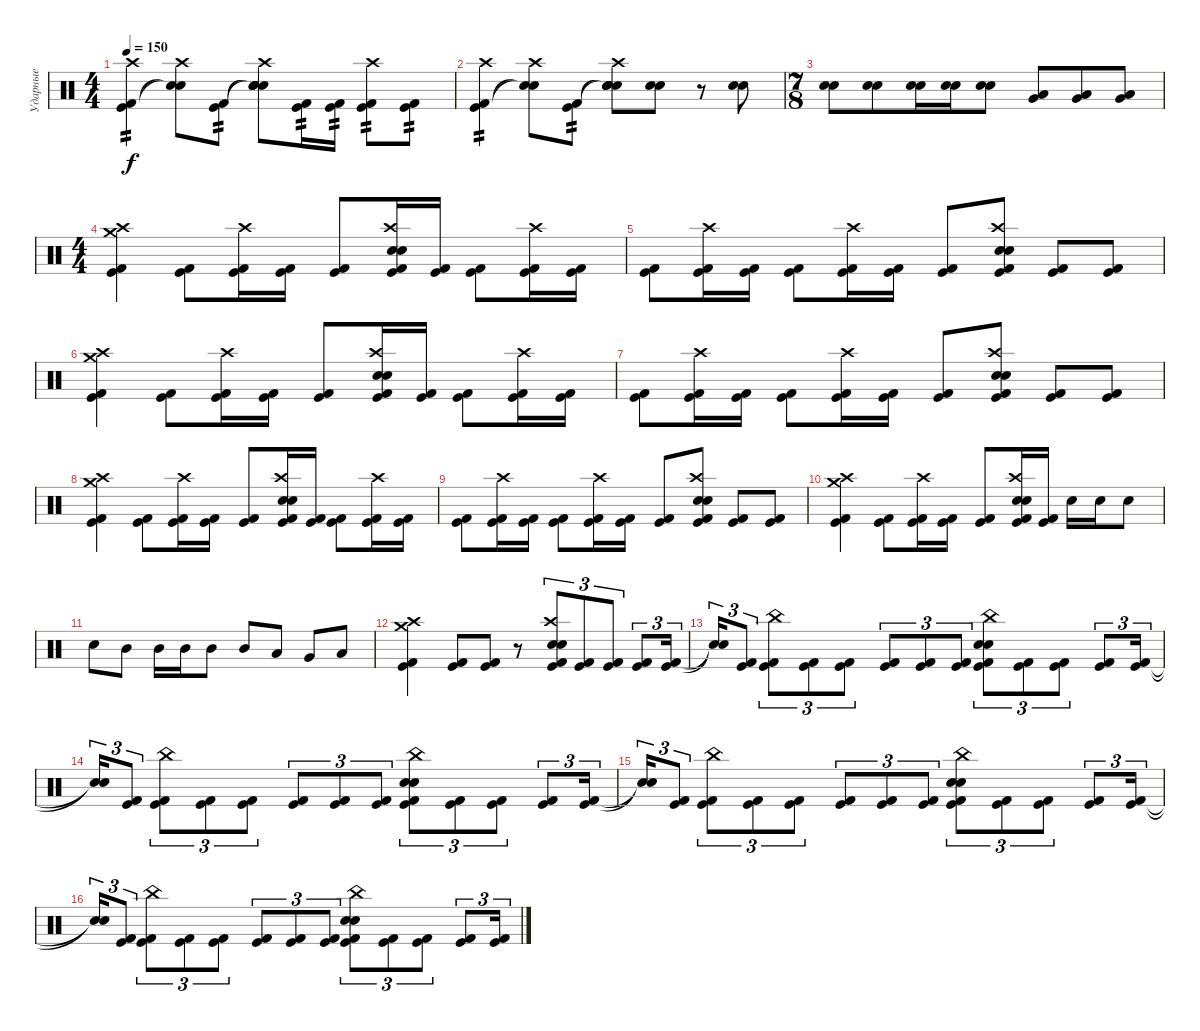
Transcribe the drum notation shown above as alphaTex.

\track ("Ударные" "Ударные") {instrument percussion}
\staff {score}
\articulation defaults
\ts (4 4)
\tempo 150
\clef neutral
\ks c
("Kick (hit) 2" "Kick (hit)" "Crash high (hit)").4{tp 2 dy f} ("Snare (hit)"{t} "Snare (hit)"{t} "Crash high (hit)").8 ("Kick (hit) 2" "Kick (hit)").8{tp 2} ("Snare (hit)"{t} "Snare (hit)"{t} "Electric Snare (hit)" "Snare (hit) 2" "Crash high (hit)").8 ("Kick (hit) 2" "Kick (hit)").16{tp 2} ("Kick (hit) 2" "Kick (hit)").16{tp 2} ("Kick (hit) 2" "Kick (hit)" "Crash high (hit)").8{tp 2} ("Kick (hit) 2" "Kick (hit)").8{tp 2} |
("Kick (hit) 2" "Kick (hit)" "Crash high (hit)").4{tp 2} ("Snare (hit)"{t} "Snare (hit)"{t} "Crash high (hit)").8 ("Kick (hit) 2" "Kick (hit)").8{tp 2} ("Snare (hit)"{t} "Snare (hit)"{t} "Electric Snare (hit)" "Snare (hit) 2" "Crash high (hit)").8 ("Snare (hit) 2" "Electric Snare (hit)").8 r.8 ("Snare (hit) 2" "Electric Snare (hit)").8 |
\ts (7 8)
("Snare (hit) 2" "Electric Snare (hit)").8 ("Snare (hit) 2" "Electric Snare (hit)").8 ("Snare (hit) 2" "Electric Snare (hit)").16 ("Snare (hit) 2" "Electric Snare (hit)").16 ("Snare (hit) 2" "Electric Snare (hit)").8 ("Very Low Tom (hit)" "Low Tom (hit)").8 ("Very Low Tom (hit)" "Low Tom (hit)").8 ("Very Low Tom (hit)" "Low Tom (hit)").8 |
\ts (4 4)
("Kick (hit) 2" "Kick (hit)" "Crash medium (hit)" "Crash high (hit)").4 ("Kick (hit) 2" "Kick (hit)").8 ("Kick (hit) 2" "Kick (hit)" "Crash high (hit)").16 ("Kick (hit) 2" "Kick (hit)").16 ("Kick (hit) 2" "Kick (hit)").8 ("Kick (hit) 2" "Kick (hit)" "Electric Snare (hit)" "Snare (hit) 2" "Crash high (hit)").16 ("Kick (hit) 2" "Kick (hit)").16 ("Kick (hit) 2" "Kick (hit)").8 ("Kick (hit) 2" "Kick (hit)" "Crash high (hit)").16 ("Kick (hit) 2" "Kick (hit)").16 |
("Kick (hit) 2" "Kick (hit)").8 ("Kick (hit) 2" "Kick (hit)" "Crash high (hit)").16 ("Kick (hit) 2" "Kick (hit)").16 ("Kick (hit) 2" "Kick (hit)").8 ("Kick (hit) 2" "Kick (hit)" "Crash high (hit)").16 ("Kick (hit) 2" "Kick (hit)").16 ("Kick (hit) 2" "Kick (hit)").8 ("Kick (hit) 2" "Kick (hit)" "Electric Snare (hit)" "Snare (hit) 2" "Crash high (hit)").8 ("Kick (hit) 2" "Kick (hit)").8 ("Kick (hit) 2" "Kick (hit)").8 |
("Kick (hit) 2" "Kick (hit)" "Crash medium (hit)" "Crash high (hit)").4 ("Kick (hit) 2" "Kick (hit)").8 ("Kick (hit) 2" "Kick (hit)" "Crash high (hit)").16 ("Kick (hit) 2" "Kick (hit)").16 ("Kick (hit) 2" "Kick (hit)").8 ("Kick (hit) 2" "Kick (hit)" "Electric Snare (hit)" "Snare (hit) 2" "Crash high (hit)").16 ("Kick (hit) 2" "Kick (hit)").16 ("Kick (hit) 2" "Kick (hit)").8 ("Kick (hit) 2" "Kick (hit)" "Crash high (hit)").16 ("Kick (hit) 2" "Kick (hit)").16 |
("Kick (hit) 2" "Kick (hit)").8 ("Kick (hit) 2" "Kick (hit)" "Crash high (hit)").16 ("Kick (hit) 2" "Kick (hit)").16 ("Kick (hit) 2" "Kick (hit)").8 ("Kick (hit) 2" "Kick (hit)" "Crash high (hit)").16 ("Kick (hit) 2" "Kick (hit)").16 ("Kick (hit) 2" "Kick (hit)").8 ("Kick (hit) 2" "Kick (hit)" "Electric Snare (hit)" "Snare (hit) 2" "Crash high (hit)").8 ("Kick (hit) 2" "Kick (hit)").8 ("Kick (hit) 2" "Kick (hit)").8 |
("Kick (hit) 2" "Kick (hit)" "Crash medium (hit)" "Crash high (hit)").4 ("Kick (hit) 2" "Kick (hit)").8 ("Kick (hit) 2" "Kick (hit)" "Crash high (hit)").16 ("Kick (hit) 2" "Kick (hit)").16 ("Kick (hit) 2" "Kick (hit)").8 ("Kick (hit) 2" "Kick (hit)" "Electric Snare (hit)" "Snare (hit) 2" "Crash high (hit)").16 ("Kick (hit) 2" "Kick (hit)").16 ("Kick (hit) 2" "Kick (hit)").8 ("Kick (hit) 2" "Kick (hit)" "Crash high (hit)").16 ("Kick (hit) 2" "Kick (hit)").16 |
("Kick (hit) 2" "Kick (hit)").8 ("Kick (hit) 2" "Kick (hit)" "Crash high (hit)").16 ("Kick (hit) 2" "Kick (hit)").16 ("Kick (hit) 2" "Kick (hit)").8 ("Kick (hit) 2" "Kick (hit)" "Crash high (hit)").16 ("Kick (hit) 2" "Kick (hit)").16 ("Kick (hit) 2" "Kick (hit)").8 ("Kick (hit) 2" "Kick (hit)" "Electric Snare (hit)" "Snare (hit) 2" "Crash high (hit)").8 ("Kick (hit) 2" "Kick (hit)").8 ("Kick (hit) 2" "Kick (hit)").8 |
("Kick (hit) 2" "Kick (hit)" "Crash medium (hit)" "Crash high (hit)").4 ("Kick (hit) 2" "Kick (hit)").8 ("Kick (hit) 2" "Kick (hit)" "Crash high (hit)").16 ("Kick (hit) 2" "Kick (hit)").16 ("Kick (hit) 2" "Kick (hit)").8 ("Kick (hit) 2" "Kick (hit)" "Electric Snare (hit)" "Snare (hit) 2" "Crash high (hit)").16 ("Kick (hit) 2" "Kick (hit)").16 "Snare (hit) 2".16 "Snare (hit) 2".16 "Snare (hit) 2".8 |
"Snare (hit) 2".8 "Mid Tom (hit)".8 "Mid Tom (hit)".16 "Mid Tom (hit)".16 "Mid Tom (hit)".8 "Mid Tom (hit)".8 "Low Tom (hit)".8 "Very Low Tom (hit)".8 "Low Floor Tom (hit)".8 |
("Kick (hit) 2" "Kick (hit)" "Crash medium (hit)" "Crash high (hit)").4 ("Kick (hit) 2" "Kick (hit)").8 ("Kick (hit) 2" "Kick (hit)").8 r.8 ("Kick (hit) 2" "Kick (hit)" "Electric Snare (hit)" "Snare (hit) 2" "Crash high (hit)").8{tu (3 2)} ("Kick (hit) 2" "Kick (hit)").8{tu (3 2)} ("Kick (hit) 2" "Kick (hit)").8{tu (3 2)} ("Kick (hit) 2" "Kick (hit)").8{tu (3 2)} ("Kick (hit) 2" "Kick (hit)").16{tu (3 2)} |
("Snare (hit)"{t} "Snare (hit)"{t}).16{tu (3 2)} ("Kick (hit) 2" "Kick (hit)").8{tu (3 2)} ("Kick (hit) 2" "Kick (hit)" "China (hit)").8{tu (3 2)} ("Kick (hit) 2" "Kick (hit)").8{tu (3 2)} ("Kick (hit) 2" "Kick (hit)").8{tu (3 2)} ("Kick (hit) 2" "Kick (hit)").8{tu (3 2)} ("Kick (hit) 2" "Kick (hit)").8{tu (3 2)} ("Kick (hit) 2" "Kick (hit)").8{tu (3 2)} ("Kick (hit) 2" "Kick (hit)" "Electric Snare (hit)" "Snare (hit) 2" "China (hit)").8{tu (3 2)} ("Kick (hit) 2" "Kick (hit)").8{tu (3 2)} ("Kick (hit) 2" "Kick (hit)").8{tu (3 2)} ("Kick (hit) 2" "Kick (hit)").8{tu (3 2)} ("Kick (hit) 2" "Kick (hit)").16{tu (3 2)} |
("Snare (hit)"{t} "Snare (hit)"{t}).16{tu (3 2)} ("Kick (hit) 2" "Kick (hit)").8{tu (3 2)} ("Kick (hit) 2" "Kick (hit)" "China (hit)").8{tu (3 2)} ("Kick (hit) 2" "Kick (hit)").8{tu (3 2)} ("Kick (hit) 2" "Kick (hit)").8{tu (3 2)} ("Kick (hit) 2" "Kick (hit)").8{tu (3 2)} ("Kick (hit) 2" "Kick (hit)").8{tu (3 2)} ("Kick (hit) 2" "Kick (hit)").8{tu (3 2)} ("Kick (hit) 2" "Kick (hit)" "Electric Snare (hit)" "Snare (hit) 2" "China (hit)").8{tu (3 2)} ("Kick (hit) 2" "Kick (hit)").8{tu (3 2)} ("Kick (hit) 2" "Kick (hit)").8{tu (3 2)} ("Kick (hit) 2" "Kick (hit)").8{tu (3 2)} ("Kick (hit) 2" "Kick (hit)").16{tu (3 2)} |
("Snare (hit)"{t} "Snare (hit)"{t}).16{tu (3 2)} ("Kick (hit) 2" "Kick (hit)").8{tu (3 2)} ("Kick (hit) 2" "Kick (hit)" "China (hit)").8{tu (3 2)} ("Kick (hit) 2" "Kick (hit)").8{tu (3 2)} ("Kick (hit) 2" "Kick (hit)").8{tu (3 2)} ("Kick (hit) 2" "Kick (hit)").8{tu (3 2)} ("Kick (hit) 2" "Kick (hit)").8{tu (3 2)} ("Kick (hit) 2" "Kick (hit)").8{tu (3 2)} ("Kick (hit) 2" "Kick (hit)" "Electric Snare (hit)" "Snare (hit) 2" "China (hit)").8{tu (3 2)} ("Kick (hit) 2" "Kick (hit)").8{tu (3 2)} ("Kick (hit) 2" "Kick (hit)").8{tu (3 2)} ("Kick (hit) 2" "Kick (hit)").8{tu (3 2)} ("Kick (hit) 2" "Kick (hit)").16{tu (3 2)} |
("Snare (hit)"{t} "Snare (hit)"{t}).16{tu (3 2)} ("Kick (hit) 2" "Kick (hit)").8{tu (3 2)} ("Kick (hit) 2" "Kick (hit)" "China (hit)").8{tu (3 2)} ("Kick (hit) 2" "Kick (hit)").8{tu (3 2)} ("Kick (hit) 2" "Kick (hit)").8{tu (3 2)} ("Kick (hit) 2" "Kick (hit)").8{tu (3 2)} ("Kick (hit) 2" "Kick (hit)").8{tu (3 2)} ("Kick (hit) 2" "Kick (hit)").8{tu (3 2)} ("Kick (hit) 2" "Kick (hit)" "Electric Snare (hit)" "Snare (hit) 2" "China (hit)").8{tu (3 2)} ("Kick (hit) 2" "Kick (hit)").8{tu (3 2)} ("Kick (hit) 2" "Kick (hit)").8{tu (3 2)} ("Kick (hit) 2" "Kick (hit)").8{tu (3 2)} ("Kick (hit) 2" "Kick (hit)").16{tu (3 2)}
